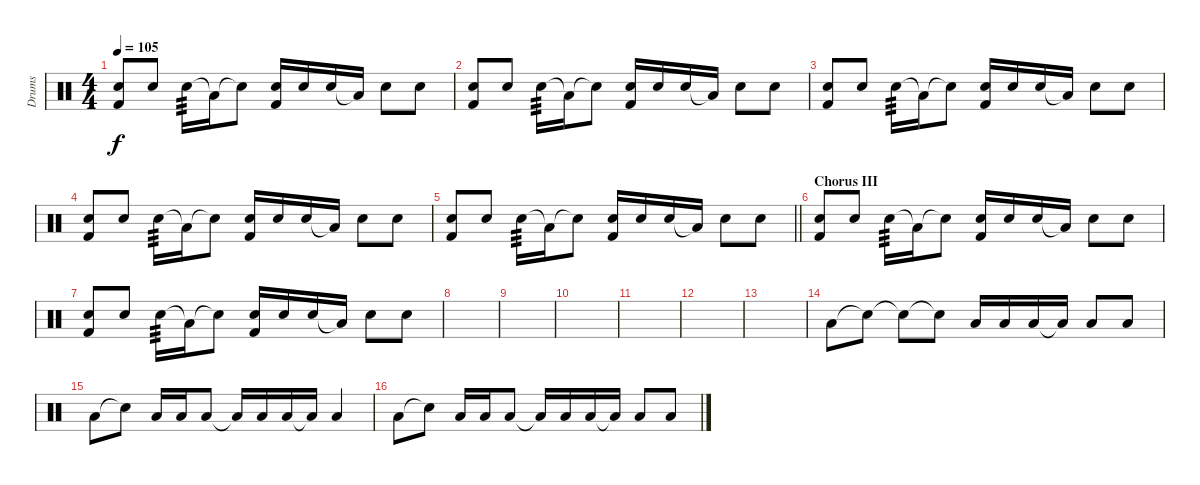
\track ("Drums" "Drums") {instrument percussion}
\staff {score}
\articulation defaults
\ts (4 4)
\tempo 105
\clef neutral
\ks c
("Electric Snare (hit)" "Kick (hit) 2").8{dy f volume 7} "Electric Snare (hit)".8 "Electric Snare (hit)".16{tp 3} "Low Floor Tom (hit)"{t}.16 "Electric Snare (hit)"{t}.8 ("Electric Snare (hit)" "Kick (hit) 2").16 "Electric Snare (hit)".16 "Electric Snare (hit)".16 "Low Floor Tom (hit)"{t}.16 "Electric Snare (hit)".8 "Electric Snare (hit)".8 |
("Electric Snare (hit)" "Kick (hit) 2").8 "Electric Snare (hit)".8 "Electric Snare (hit)".16{tp 3} "Low Floor Tom (hit)"{t}.16 "Electric Snare (hit)"{t}.8 ("Electric Snare (hit)" "Kick (hit) 2").16 "Electric Snare (hit)".16 "Electric Snare (hit)".16 "Low Floor Tom (hit)"{t}.16 "Electric Snare (hit)".8 "Electric Snare (hit)".8 |
("Electric Snare (hit)" "Kick (hit) 2").8{volume 7} "Electric Snare (hit)".8 "Electric Snare (hit)".16{tp 3} "Low Floor Tom (hit)"{t}.16 "Electric Snare (hit)"{t}.8 ("Electric Snare (hit)" "Kick (hit) 2").16 "Electric Snare (hit)".16 "Electric Snare (hit)".16 "Low Floor Tom (hit)"{t}.16 "Electric Snare (hit)".8 "Electric Snare (hit)".8 |
("Electric Snare (hit)" "Kick (hit) 2").8 "Electric Snare (hit)".8 "Electric Snare (hit)".16{tp 3} "Low Floor Tom (hit)"{t}.16 "Electric Snare (hit)"{t}.8 ("Electric Snare (hit)" "Kick (hit) 2").16 "Electric Snare (hit)".16 "Electric Snare (hit)".16 "Low Floor Tom (hit)"{t}.16 "Electric Snare (hit)".8 "Electric Snare (hit)".8 |
\barLineRight lightlight
("Electric Snare (hit)" "Kick (hit) 2").8 "Electric Snare (hit)".8 "Electric Snare (hit)".16{tp 3} "Low Floor Tom (hit)"{t}.16 "Electric Snare (hit)"{t}.8 ("Electric Snare (hit)" "Kick (hit) 2").16 "Electric Snare (hit)".16 "Electric Snare (hit)".16 "Low Floor Tom (hit)"{t}.16 "Electric Snare (hit)".8 "Electric Snare (hit)".8 |
\section ("" "Chorus III")
("Electric Snare (hit)" "Kick (hit) 2").8{volume 0} "Electric Snare (hit)".8 "Electric Snare (hit)".16{tp 3} "Low Floor Tom (hit)"{t}.16 "Electric Snare (hit)"{t}.8 ("Electric Snare (hit)" "Kick (hit) 2").16 "Electric Snare (hit)".16 "Electric Snare (hit)".16 "Low Floor Tom (hit)"{t}.16 "Electric Snare (hit)".8 "Electric Snare (hit)".8 |
("Electric Snare (hit)" "Kick (hit) 2").8 "Electric Snare (hit)".8 "Electric Snare (hit)".16{tp 3} "Low Floor Tom (hit)"{t}.16 "Electric Snare (hit)"{t}.8 ("Electric Snare (hit)" "Kick (hit) 2").16 "Electric Snare (hit)".16 "Electric Snare (hit)".16 "Low Floor Tom (hit)"{t}.16 "Electric Snare (hit)".8 "Electric Snare (hit)".8 |
|
|
|
|
|
|
"Low Floor Tom (hit)".8{volume 12} "Snare (hit)"{t}.8 "Snare (hit)"{t}.8 "Snare (hit)"{t}.8 "Low Floor Tom (hit)".16 "Low Floor Tom (hit)".16 "Low Floor Tom (hit)".16 "Low Floor Tom (hit)"{t}.16 "Low Floor Tom (hit)".8 "Low Floor Tom (hit)".8 |
"Low Floor Tom (hit)".8 "Snare (hit)"{t}.8 "Low Floor Tom (hit)".16 "Low Floor Tom (hit)".16 "Low Floor Tom (hit)".8 "Low Floor Tom (hit)"{t}.16 "Low Floor Tom (hit)".16 "Low Floor Tom (hit)".16 "Low Floor Tom (hit)"{t}.16 "Low Floor Tom (hit)".4 |
"Low Floor Tom (hit)".8 "Snare (hit)"{t}.8 "Low Floor Tom (hit)".16 "Low Floor Tom (hit)".16 "Low Floor Tom (hit)".8 "Low Floor Tom (hit)"{t}.16 "Low Floor Tom (hit)".16 "Low Floor Tom (hit)".16 "Low Floor Tom (hit)"{t}.16 "Low Floor Tom (hit)".8 "Low Floor Tom (hit)".8
